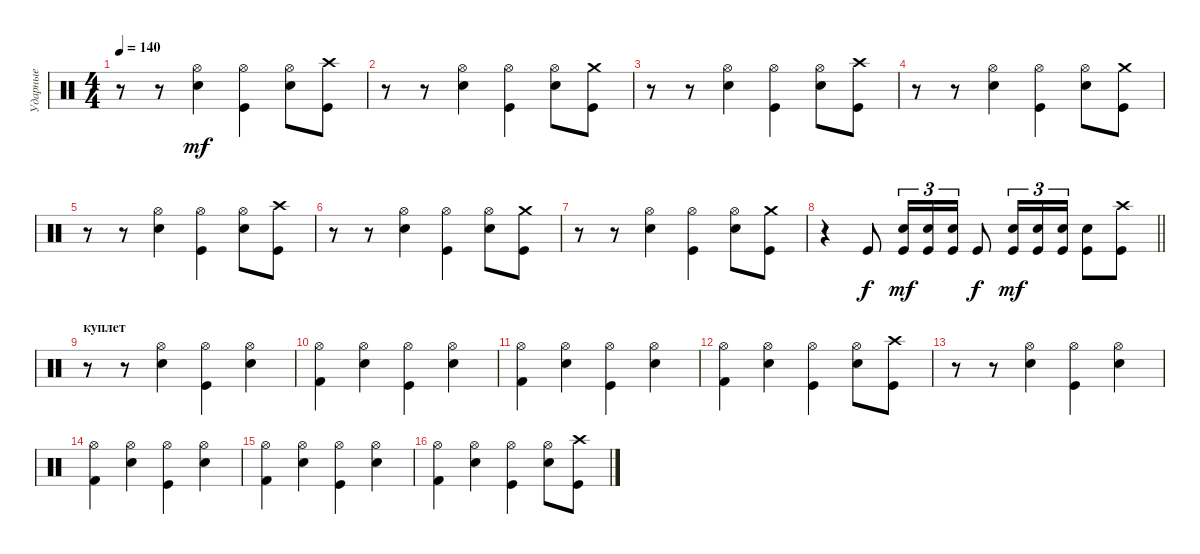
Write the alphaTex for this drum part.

\track ("Ударные" "Ударные") {instrument percussion}
\staff {score}
\articulation defaults
\ts (4 4)
\tempo 140
\clef neutral
\ks c
r.8{dy mf} r.8 ("Electric Snare (hit)" "Hi-Hat (open)").4 ("Kick (hit)" "Hi-Hat (open)").4 ("Electric Snare (hit)" "Hi-Hat (open)").8 ("Kick (hit)" "Crash high (hit)").8 |
r.8 r.8 ("Electric Snare (hit)" "Hi-Hat (open)").4 ("Kick (hit)" "Hi-Hat (open)").4 ("Electric Snare (hit)" "Hi-Hat (open)").8 ("Kick (hit)" "Crash medium (hit)").8 |
r.8 r.8 ("Electric Snare (hit)" "Hi-Hat (open)").4 ("Kick (hit)" "Hi-Hat (open)").4 ("Electric Snare (hit)" "Hi-Hat (open)").8 ("Kick (hit)" "Crash high (hit)").8 |
r.8 r.8 ("Electric Snare (hit)" "Hi-Hat (open)").4 ("Kick (hit)" "Hi-Hat (open)").4 ("Electric Snare (hit)" "Hi-Hat (open)").8 ("Kick (hit)" "Crash medium (hit)").8 |
r.8 r.8 ("Electric Snare (hit)" "Hi-Hat (open)").4 ("Kick (hit)" "Hi-Hat (open)").4 ("Electric Snare (hit)" "Hi-Hat (open)").8 ("Kick (hit)" "Crash high (hit)").8 |
r.8 r.8 ("Electric Snare (hit)" "Hi-Hat (open)").4 ("Kick (hit)" "Hi-Hat (open)").4 ("Electric Snare (hit)" "Hi-Hat (open)").8 ("Kick (hit)" "Crash medium (hit)").8 |
r.8 r.8 ("Electric Snare (hit)" "Hi-Hat (open)").4 ("Kick (hit)" "Hi-Hat (open)").4 ("Electric Snare (hit)" "Hi-Hat (open)").8 ("Kick (hit)" "Crash medium (hit)").8 |
\barLineRight lightlight
r.4 "Kick (hit)".8{dy f} ("Kick (hit)" "Electric Snare (hit)").16{tu (3 2) dy mf} ("Kick (hit)" "Electric Snare (hit)").16{tu (3 2)} ("Kick (hit)" "Electric Snare (hit)").16{tu (3 2)} "Kick (hit)".8{dy f} ("Kick (hit)" "Electric Snare (hit)").16{tu (3 2) dy mf} ("Kick (hit)" "Electric Snare (hit)").16{tu (3 2)} ("Kick (hit)" "Electric Snare (hit)").16{tu (3 2)} ("Kick (hit)" "Electric Snare (hit)").8 ("Kick (hit)" "Crash high (hit)").8 |
\section ("" "куплет")
r.8 r.8 ("Electric Snare (hit)" "Hi-Hat (open)").4 ("Kick (hit)" "Hi-Hat (open)").4 ("Electric Snare (hit)" "Hi-Hat (open)").4 |
("Kick (hit) 2" "Hi-Hat (open)").4 ("Electric Snare (hit)" "Hi-Hat (open)").4 ("Kick (hit)" "Hi-Hat (open)").4 ("Electric Snare (hit)" "Hi-Hat (open)").4 |
("Kick (hit) 2" "Hi-Hat (open)").4 ("Electric Snare (hit)" "Hi-Hat (open)").4 ("Kick (hit)" "Hi-Hat (open)").4 ("Electric Snare (hit)" "Hi-Hat (open)").4 |
("Kick (hit) 2" "Hi-Hat (open)").4 ("Electric Snare (hit)" "Hi-Hat (open)").4 ("Kick (hit)" "Hi-Hat (open)").4 ("Electric Snare (hit)" "Hi-Hat (open)").8 ("Kick (hit)" "Crash high (hit)").8 |
r.8 r.8 ("Electric Snare (hit)" "Hi-Hat (open)").4 ("Kick (hit)" "Hi-Hat (open)").4 ("Electric Snare (hit)" "Hi-Hat (open)").4 |
("Kick (hit) 2" "Hi-Hat (open)").4 ("Electric Snare (hit)" "Hi-Hat (open)").4 ("Kick (hit)" "Hi-Hat (open)").4 ("Electric Snare (hit)" "Hi-Hat (open)").4 |
("Kick (hit) 2" "Hi-Hat (open)").4 ("Electric Snare (hit)" "Hi-Hat (open)").4 ("Kick (hit)" "Hi-Hat (open)").4 ("Electric Snare (hit)" "Hi-Hat (open)").4 |
("Kick (hit) 2" "Hi-Hat (open)").4 ("Electric Snare (hit)" "Hi-Hat (open)").4 ("Kick (hit)" "Hi-Hat (open)").4 ("Electric Snare (hit)" "Hi-Hat (open)").8 ("Kick (hit)" "Crash high (hit)").8
